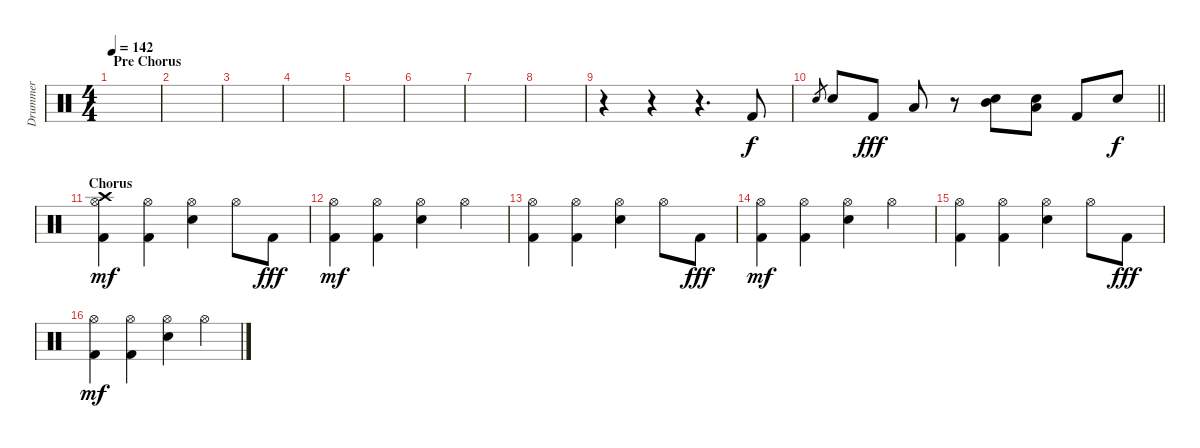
\track ("Drummer" "Drummer") {instrument percussion}
\staff {score}
\articulation defaults
\ts (4 4)
\section ("" "Pre Chorus")
\tempo 142
\clef neutral
\ks c
|
|
|
|
|
|
|
|
r.4 r.4 r.4{d} "Kick (hit) 2".8 |
\barLineRight lightlight "Electric Snare (hit)".8{gr dy f} "Electric Snare (hit)".8 "Kick (hit) 2".8{dy fff} "Low Tom (hit)".8
r.8 ("Electric Snare (hit)" "Mid Tom (hit)").8 ("Electric Snare (hit)" "Low Tom (hit)").8 "Kick (hit) 2".8 "Electric Snare (hit)".8{dy f} |
\section ("" "Chorus")
("Kick (hit) 2" "Hi-Hat (open)" "Crash high (hit)").4{dy mf} ("Kick (hit) 2" "Hi-Hat (open)").4 ("Electric Snare (hit)" "Hi-Hat (open)").4 "Hi-Hat (open)".8 "Kick (hit) 2".8{dy fff} |
("Kick (hit) 2" "Hi-Hat (open)").4{dy mf} ("Kick (hit) 2" "Hi-Hat (open)").4 ("Electric Snare (hit)" "Hi-Hat (open)").4 "Hi-Hat (open)".4 |
("Kick (hit) 2" "Hi-Hat (open)").4 ("Kick (hit) 2" "Hi-Hat (open)").4 ("Electric Snare (hit)" "Hi-Hat (open)").4 "Hi-Hat (open)".8 "Kick (hit) 2".8{dy fff} |
("Kick (hit) 2" "Hi-Hat (open)").4{dy mf} ("Kick (hit) 2" "Hi-Hat (open)").4 ("Electric Snare (hit)" "Hi-Hat (open)").4 "Hi-Hat (open)".4 |
("Kick (hit) 2" "Hi-Hat (open)").4 ("Kick (hit) 2" "Hi-Hat (open)").4 ("Electric Snare (hit)" "Hi-Hat (open)").4 "Hi-Hat (open)".8 "Kick (hit) 2".8{dy fff} |
("Kick (hit) 2" "Hi-Hat (open)").4{dy mf} ("Kick (hit) 2" "Hi-Hat (open)").4 ("Electric Snare (hit)" "Hi-Hat (open)").4 "Hi-Hat (open)".4
